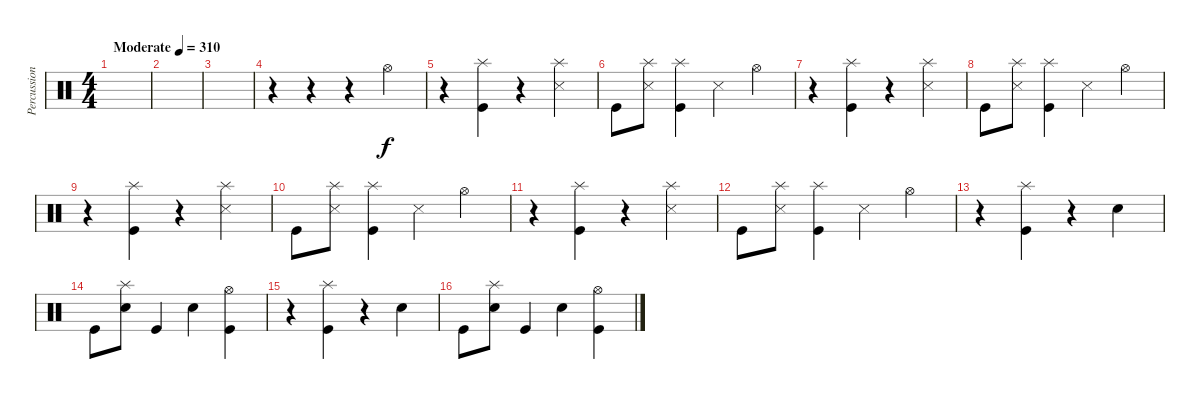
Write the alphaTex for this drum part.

\track ("Percussion" "Percussion") {instrument percussion}
\staff {score}
\articulation defaults
\ts (4 4)
\tempo (310 "Moderate")
\clef neutral
\ks c
|
|
|
r.4 r.4 r.4 "Hi-Hat (open)".4 |
r.4 ("Splash (hit)" "Kick (hit)").4 r.4 ("Splash (hit)" "Metronome (hit)").4 |
"Kick (hit)".8 ("Splash (hit)" "Metronome (hit)").8 ("Splash (hit)" "Kick (hit)").4 "Metronome (hit)".4 "Hi-Hat (open)".4 |
r.4 ("Splash (hit)" "Kick (hit)").4 r.4 ("Splash (hit)" "Metronome (hit)").4 |
"Kick (hit)".8 ("Splash (hit)" "Metronome (hit)").8 ("Splash (hit)" "Kick (hit)").4 "Metronome (hit)".4 "Hi-Hat (open)".4 |
r.4 ("Splash (hit)" "Kick (hit)").4 r.4 ("Splash (hit)" "Metronome (hit)").4 |
"Kick (hit)".8 ("Splash (hit)" "Metronome (hit)").8 ("Splash (hit)" "Kick (hit)").4 "Metronome (hit)".4 "Hi-Hat (open)".4 |
r.4 ("Splash (hit)" "Kick (hit)").4 r.4 ("Splash (hit)" "Metronome (hit)").4 |
"Kick (hit)".8 ("Splash (hit)" "Metronome (hit)").8 ("Splash (hit)" "Kick (hit)").4 "Metronome (hit)".4 "Hi-Hat (open)".4 |
r.4 ("Splash (hit)" "Kick (hit)").4 r.4 "Electric Snare (hit)".4 |
"Kick (hit)".8 ("Splash (hit)" "Electric Snare (hit)").8 "Kick (hit)".4 "Electric Snare (hit)".4 ("Hi-Hat (open)" "Kick (hit)").4 |
r.4 ("Splash (hit)" "Kick (hit)").4 r.4 "Electric Snare (hit)".4 |
"Kick (hit)".8 ("Splash (hit)" "Electric Snare (hit)").8 "Kick (hit)".4 "Electric Snare (hit)".4 ("Hi-Hat (open)" "Kick (hit)").4
